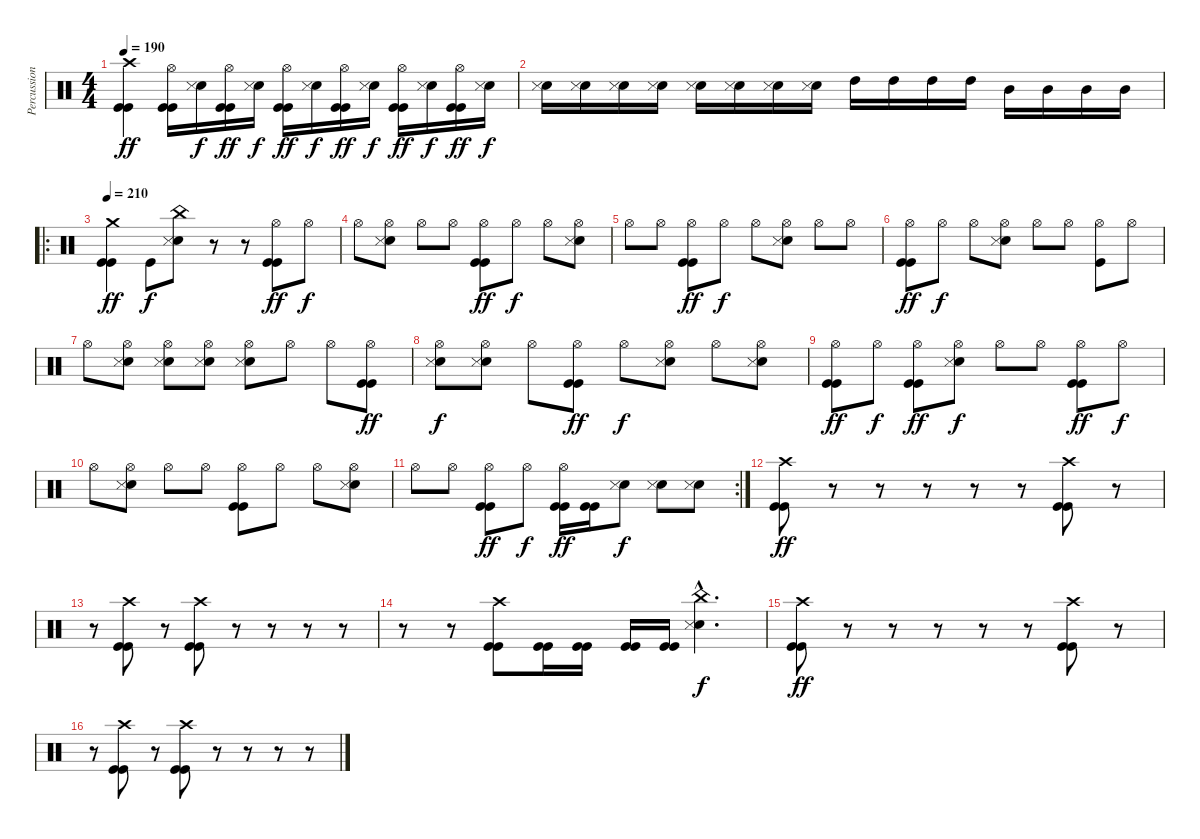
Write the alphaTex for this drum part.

\track ("Percussion" "Percussion") {instrument percussion}
\staff {score}
\articulation defaults
\ts (4 4)
\tempo 190
\clef neutral
\ks c
("Crash high (hit)" "Kick (hit)" "Kick (hit)").4{dy ff} ("Hi-Hat (open)" "Kick (hit)" "Kick (hit)").16 ("Electric Snare (hit)" "Snare (side stick) 3").16{dy f} ("Hi-Hat (open)" "Kick (hit)" "Kick (hit)").16{dy ff} ("Electric Snare (hit)" "Snare (side stick) 3").16{dy f} ("Hi-Hat (open)" "Kick (hit)" "Kick (hit)").16{dy ff} ("Electric Snare (hit)" "Snare (side stick) 3").16{dy f} ("Hi-Hat (open)" "Kick (hit)" "Kick (hit)").16{dy ff} ("Electric Snare (hit)" "Snare (side stick) 3").16{dy f} ("Hi-Hat (open)" "Kick (hit)" "Kick (hit)").16{dy ff} ("Electric Snare (hit)" "Snare (side stick) 3").16{dy f} ("Hi-Hat (open)" "Kick (hit)" "Kick (hit)").16{dy ff} ("Electric Snare (hit)" "Snare (side stick) 3").16{dy f} |
("Electric Snare (hit)" "Snare (side stick) 3").16 ("Electric Snare (hit)" "Snare (side stick) 3").16 ("Electric Snare (hit)" "Snare (side stick) 3").16 ("Electric Snare (hit)" "Snare (side stick) 3").16 ("Electric Snare (hit)" "Snare (side stick) 3").16 ("Electric Snare (hit)" "Snare (side stick) 3").16 ("Electric Snare (hit)" "Snare (side stick) 3").16 ("Electric Snare (hit)" "Snare (side stick) 3").16 "High Tom (hit)".16 "High Tom (hit)".16 "High Tom (hit)".16 "High Tom (hit)".16 "Mid Tom (hit)".16 "Mid Tom (hit)".16 "Mid Tom (hit)".16 "Mid Tom (hit)".16 |
\ro
\tempo 210
("Crash medium (hit)" "Kick (hit)" "Kick (hit)").4{dy ff} "Kick (hit)".8{dy f} ("China (hit)" "Electric Snare (hit)" "Snare (side stick) 3").8 r.8 r.8 ("Hi-Hat (open)" "Kick (hit)" "Kick (hit)").8{dy ff} "Hi-Hat (open)".8{dy f} |
"Hi-Hat (open)".8 ("Hi-Hat (open)" "Electric Snare (hit)" "Snare (side stick) 3").8 "Hi-Hat (open)".8 "Hi-Hat (open)".8 ("Hi-Hat (open)" "Kick (hit)" "Kick (hit)").8{dy ff} "Hi-Hat (open)".8{dy f} "Hi-Hat (open)".8 ("Hi-Hat (open)" "Electric Snare (hit)" "Snare (side stick) 3").8 |
"Hi-Hat (open)".8 "Hi-Hat (open)".8 ("Hi-Hat (open)" "Kick (hit)" "Kick (hit)").8{dy ff} "Hi-Hat (open)".8{dy f} "Hi-Hat (open)".8 ("Hi-Hat (open)" "Electric Snare (hit)" "Snare (side stick) 3").8 "Hi-Hat (open)".8 "Hi-Hat (open)".8 |
("Hi-Hat (open)" "Kick (hit)" "Kick (hit)").8{dy ff} "Hi-Hat (open)".8{dy f} "Hi-Hat (open)".8 ("Hi-Hat (open)" "Electric Snare (hit)" "Snare (side stick) 3").8 "Hi-Hat (open)".8 "Hi-Hat (open)".8 ("Hi-Hat (open)" "Kick (hit)").8 "Hi-Hat (open)".8 |
"Hi-Hat (open)".8 ("Hi-Hat (open)" "Electric Snare (hit)" "Snare (side stick) 3").8 ("Hi-Hat (open)" "Electric Snare (hit)" "Snare (side stick) 3").8 ("Hi-Hat (open)" "Electric Snare (hit)" "Snare (side stick) 3").8 ("Hi-Hat (open)" "Electric Snare (hit)" "Snare (side stick) 3").8 "Hi-Hat (open)".8 "Hi-Hat (open)".8 ("Hi-Hat (open)" "Kick (hit)" "Kick (hit)").8{dy ff} |
("Hi-Hat (open)" "Electric Snare (hit)" "Snare (side stick) 3").8{dy f} ("Hi-Hat (open)" "Electric Snare (hit)" "Snare (side stick) 3").8 "Hi-Hat (open)".8 ("Hi-Hat (open)" "Kick (hit)" "Kick (hit)").8{dy ff} "Hi-Hat (open)".8{dy f} ("Hi-Hat (open)" "Electric Snare (hit)" "Snare (side stick) 3").8 "Hi-Hat (open)".8 ("Hi-Hat (open)" "Electric Snare (hit)" "Snare (side stick) 3").8 |
("Hi-Hat (open)" "Kick (hit)" "Kick (hit)").8{dy ff} "Hi-Hat (open)".8{dy f} ("Hi-Hat (open)" "Kick (hit)" "Kick (hit)").8{dy ff} ("Hi-Hat (open)" "Electric Snare (hit)" "Snare (side stick) 3").8{dy f} "Hi-Hat (open)".8 "Hi-Hat (open)".8 ("Hi-Hat (open)" "Kick (hit)" "Kick (hit)").8{dy ff} "Hi-Hat (open)".8{dy f} |
"Hi-Hat (open)".8 ("Hi-Hat (open)" "Electric Snare (hit)" "Snare (side stick) 3").8 "Hi-Hat (open)".8 "Hi-Hat (open)".8 ("Hi-Hat (open)" "Kick (hit)" "Kick (hit)").8 "Hi-Hat (open)".8 "Hi-Hat (open)".8 ("Hi-Hat (open)" "Electric Snare (hit)" "Snare (side stick) 3").8 |
\rc 2 "Hi-Hat (open)".8 "Hi-Hat (open)".8
("Hi-Hat (open)" "Kick (hit)" "Kick (hit)").8{dy ff} "Hi-Hat (open)".8{dy f} ("Hi-Hat (open)" "Kick (hit)" "Kick (hit)").16{dy ff} ("Kick (hit)" "Kick (hit)").16 ("Electric Snare (hit)" "Snare (side stick) 3").8{dy f} ("Electric Snare (hit)" "Snare (side stick) 3").8 ("Electric Snare (hit)" "Snare (side stick) 3").8 |
("Crash high (hit)" "Kick (hit)" "Kick (hit)").8{dy ff} r.8 r.8 r.8 r.8 r.8 ("Crash high (hit)" "Kick (hit)" "Kick (hit)").8 r.8 |
r.8 ("Crash high (hit)" "Kick (hit)" "Kick (hit)").8 r.8 ("Crash high (hit)" "Kick (hit)" "Kick (hit)").8 r.8 r.8 r.8 r.8 |
r.8 r.8 ("Crash high (hit)" "Kick (hit)" "Kick (hit)").8 ("Kick (hit)" "Kick (hit)").16 ("Kick (hit)" "Kick (hit)").16 ("Kick (hit)" "Kick (hit)").16 ("Kick (hit)" "Kick (hit)").16 ("China (hit)"{hac} "Electric Snare (hit)"{hac} "Snare (side stick) 3"{hac}).4{d dy f} |
("Crash high (hit)" "Kick (hit)" "Kick (hit)").8{dy ff} r.8 r.8 r.8 r.8 r.8 ("Crash high (hit)" "Kick (hit)" "Kick (hit)").8 r.8 |
r.8 ("Crash high (hit)" "Kick (hit)" "Kick (hit)").8 r.8 ("Crash high (hit)" "Kick (hit)" "Kick (hit)").8 r.8 r.8 r.8 r.8
